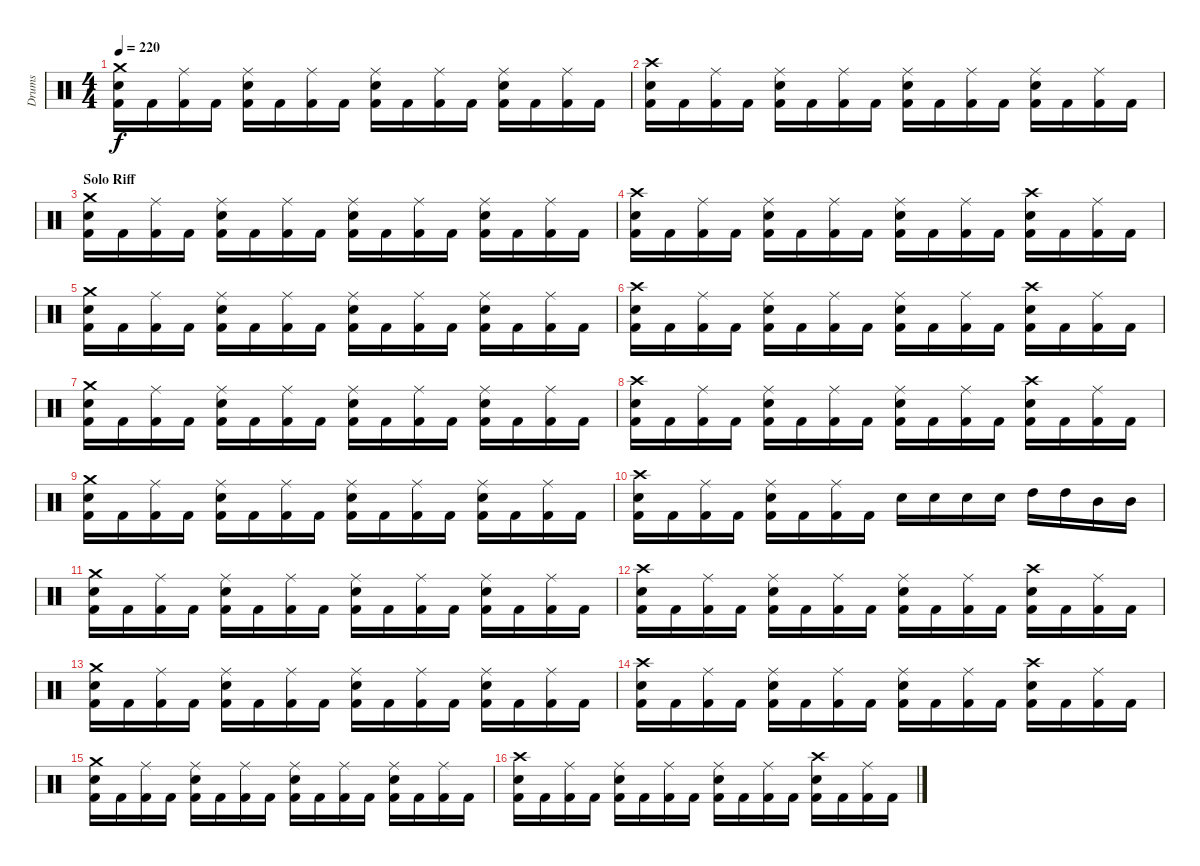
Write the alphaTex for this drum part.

\track ("Drums" "Drums") {instrument percussion}
\staff {score}
\articulation defaults
\ts (4 4)
\tempo 220
\clef neutral
\ks c
("Crash medium (hit)" "Electric Snare (hit)" "Kick (hit) 2").16{dy f} "Kick (hit) 2".16 ("Ride (middle)" "Kick (hit) 2").16 "Kick (hit) 2".16 ("Ride (middle)" "Electric Snare (hit)" "Kick (hit) 2").16 "Kick (hit) 2".16 ("Ride (middle)" "Kick (hit) 2").16 "Kick (hit) 2".16 ("Ride (middle)" "Electric Snare (hit)" "Kick (hit) 2").16 "Kick (hit) 2".16 ("Ride (middle)" "Kick (hit) 2").16 "Kick (hit) 2".16 ("Ride (middle)" "Electric Snare (hit)" "Kick (hit) 2").16 "Kick (hit) 2".16 ("Ride (middle)" "Kick (hit) 2").16 "Kick (hit) 2".16 |
("Crash high (hit)" "Electric Snare (hit)" "Kick (hit) 2").16 "Kick (hit) 2".16 ("Ride (middle)" "Kick (hit) 2").16 "Kick (hit) 2".16 ("Ride (middle)" "Electric Snare (hit)" "Kick (hit) 2").16 "Kick (hit) 2".16 ("Ride (middle)" "Kick (hit) 2").16 "Kick (hit) 2".16 ("Ride (middle)" "Electric Snare (hit)" "Kick (hit) 2").16 "Kick (hit) 2".16 ("Ride (middle)" "Kick (hit) 2").16 "Kick (hit) 2".16 ("Ride (middle)" "Electric Snare (hit)" "Kick (hit) 2").16 "Kick (hit) 2".16 ("Ride (middle)" "Kick (hit) 2").16 "Kick (hit) 2".16 |
\section ("" "Solo Riff")
("Crash medium (hit)" "Electric Snare (hit)" "Kick (hit) 2").16 "Kick (hit) 2".16 ("Ride (middle)" "Kick (hit) 2").16 "Kick (hit) 2".16 ("Ride (middle)" "Electric Snare (hit)" "Kick (hit) 2").16 "Kick (hit) 2".16 ("Ride (middle)" "Kick (hit) 2").16 "Kick (hit) 2".16 ("Ride (middle)" "Electric Snare (hit)" "Kick (hit) 2").16 "Kick (hit) 2".16 ("Ride (middle)" "Kick (hit) 2").16 "Kick (hit) 2".16 ("Ride (middle)" "Electric Snare (hit)" "Kick (hit) 2").16 "Kick (hit) 2".16 ("Ride (middle)" "Kick (hit) 2").16 "Kick (hit) 2".16 |
("Crash high (hit)" "Electric Snare (hit)" "Kick (hit) 2").16 "Kick (hit) 2".16 ("Ride (middle)" "Kick (hit) 2").16 "Kick (hit) 2".16 ("Ride (middle)" "Electric Snare (hit)" "Kick (hit) 2").16 "Kick (hit) 2".16 ("Ride (middle)" "Kick (hit) 2").16 "Kick (hit) 2".16 ("Ride (middle)" "Electric Snare (hit)" "Kick (hit) 2").16 "Kick (hit) 2".16 ("Ride (middle)" "Kick (hit) 2").16 "Kick (hit) 2".16 ("Crash high (hit)" "Electric Snare (hit)" "Kick (hit) 2").16 "Kick (hit) 2".16 ("Ride (middle)" "Kick (hit) 2").16 "Kick (hit) 2".16 |
("Crash medium (hit)" "Electric Snare (hit)" "Kick (hit) 2").16 "Kick (hit) 2".16 ("Ride (middle)" "Kick (hit) 2").16 "Kick (hit) 2".16 ("Ride (middle)" "Electric Snare (hit)" "Kick (hit) 2").16 "Kick (hit) 2".16 ("Ride (middle)" "Kick (hit) 2").16 "Kick (hit) 2".16 ("Ride (middle)" "Electric Snare (hit)" "Kick (hit) 2").16 "Kick (hit) 2".16 ("Ride (middle)" "Kick (hit) 2").16 "Kick (hit) 2".16 ("Ride (middle)" "Electric Snare (hit)" "Kick (hit) 2").16 "Kick (hit) 2".16 ("Ride (middle)" "Kick (hit) 2").16 "Kick (hit) 2".16 |
("Crash high (hit)" "Electric Snare (hit)" "Kick (hit) 2").16 "Kick (hit) 2".16 ("Ride (middle)" "Kick (hit) 2").16 "Kick (hit) 2".16 ("Ride (middle)" "Electric Snare (hit)" "Kick (hit) 2").16 "Kick (hit) 2".16 ("Ride (middle)" "Kick (hit) 2").16 "Kick (hit) 2".16 ("Ride (middle)" "Electric Snare (hit)" "Kick (hit) 2").16 "Kick (hit) 2".16 ("Ride (middle)" "Kick (hit) 2").16 "Kick (hit) 2".16 ("Crash high (hit)" "Electric Snare (hit)" "Kick (hit) 2").16 "Kick (hit) 2".16 ("Ride (middle)" "Kick (hit) 2").16 "Kick (hit) 2".16 |
("Crash medium (hit)" "Electric Snare (hit)" "Kick (hit) 2").16 "Kick (hit) 2".16 ("Ride (middle)" "Kick (hit) 2").16 "Kick (hit) 2".16 ("Ride (middle)" "Electric Snare (hit)" "Kick (hit) 2").16 "Kick (hit) 2".16 ("Ride (middle)" "Kick (hit) 2").16 "Kick (hit) 2".16 ("Ride (middle)" "Electric Snare (hit)" "Kick (hit) 2").16 "Kick (hit) 2".16 ("Ride (middle)" "Kick (hit) 2").16 "Kick (hit) 2".16 ("Ride (middle)" "Electric Snare (hit)" "Kick (hit) 2").16 "Kick (hit) 2".16 ("Ride (middle)" "Kick (hit) 2").16 "Kick (hit) 2".16 |
("Crash high (hit)" "Electric Snare (hit)" "Kick (hit) 2").16 "Kick (hit) 2".16 ("Ride (middle)" "Kick (hit) 2").16 "Kick (hit) 2".16 ("Ride (middle)" "Electric Snare (hit)" "Kick (hit) 2").16 "Kick (hit) 2".16 ("Ride (middle)" "Kick (hit) 2").16 "Kick (hit) 2".16 ("Ride (middle)" "Electric Snare (hit)" "Kick (hit) 2").16 "Kick (hit) 2".16 ("Ride (middle)" "Kick (hit) 2").16 "Kick (hit) 2".16 ("Crash high (hit)" "Electric Snare (hit)" "Kick (hit) 2").16 "Kick (hit) 2".16 ("Ride (middle)" "Kick (hit) 2").16 "Kick (hit) 2".16 |
("Crash medium (hit)" "Electric Snare (hit)" "Kick (hit) 2").16 "Kick (hit) 2".16 ("Ride (middle)" "Kick (hit) 2").16 "Kick (hit) 2".16 ("Ride (middle)" "Electric Snare (hit)" "Kick (hit) 2").16 "Kick (hit) 2".16 ("Ride (middle)" "Kick (hit) 2").16 "Kick (hit) 2".16 ("Ride (middle)" "Electric Snare (hit)" "Kick (hit) 2").16 "Kick (hit) 2".16 ("Ride (middle)" "Kick (hit) 2").16 "Kick (hit) 2".16 ("Ride (middle)" "Electric Snare (hit)" "Kick (hit) 2").16 "Kick (hit) 2".16 ("Ride (middle)" "Kick (hit) 2").16 "Kick (hit) 2".16 |
("Crash high (hit)" "Electric Snare (hit)" "Kick (hit) 2").16 "Kick (hit) 2".16 ("Ride (middle)" "Kick (hit) 2").16 "Kick (hit) 2".16 ("Ride (middle)" "Electric Snare (hit)" "Kick (hit) 2").16 "Kick (hit) 2".16 ("Ride (middle)" "Kick (hit) 2").16 "Kick (hit) 2".16 "Electric Snare (hit)".16 "Electric Snare (hit)".16 "Electric Snare (hit)".16 "Electric Snare (hit)".16 "High Tom (hit)".16 "High Tom (hit)".16 "Mid Tom (hit)".16 "Mid Tom (hit)".16 |
("Crash medium (hit)" "Electric Snare (hit)" "Kick (hit) 2").16 "Kick (hit) 2".16 ("Ride (middle)" "Kick (hit) 2").16 "Kick (hit) 2".16 ("Ride (middle)" "Electric Snare (hit)" "Kick (hit) 2").16 "Kick (hit) 2".16 ("Ride (middle)" "Kick (hit) 2").16 "Kick (hit) 2".16 ("Ride (middle)" "Electric Snare (hit)" "Kick (hit) 2").16 "Kick (hit) 2".16 ("Ride (middle)" "Kick (hit) 2").16 "Kick (hit) 2".16 ("Ride (middle)" "Electric Snare (hit)" "Kick (hit) 2").16 "Kick (hit) 2".16 ("Ride (middle)" "Kick (hit) 2").16 "Kick (hit) 2".16 |
("Crash high (hit)" "Electric Snare (hit)" "Kick (hit) 2").16 "Kick (hit) 2".16 ("Ride (middle)" "Kick (hit) 2").16 "Kick (hit) 2".16 ("Ride (middle)" "Electric Snare (hit)" "Kick (hit) 2").16 "Kick (hit) 2".16 ("Ride (middle)" "Kick (hit) 2").16 "Kick (hit) 2".16 ("Ride (middle)" "Electric Snare (hit)" "Kick (hit) 2").16 "Kick (hit) 2".16 ("Ride (middle)" "Kick (hit) 2").16 "Kick (hit) 2".16 ("Crash high (hit)" "Electric Snare (hit)" "Kick (hit) 2").16 "Kick (hit) 2".16 ("Ride (middle)" "Kick (hit) 2").16 "Kick (hit) 2".16 |
("Crash medium (hit)" "Electric Snare (hit)" "Kick (hit) 2").16 "Kick (hit) 2".16 ("Ride (middle)" "Kick (hit) 2").16 "Kick (hit) 2".16 ("Ride (middle)" "Electric Snare (hit)" "Kick (hit) 2").16 "Kick (hit) 2".16 ("Ride (middle)" "Kick (hit) 2").16 "Kick (hit) 2".16 ("Ride (middle)" "Electric Snare (hit)" "Kick (hit) 2").16 "Kick (hit) 2".16 ("Ride (middle)" "Kick (hit) 2").16 "Kick (hit) 2".16 ("Ride (middle)" "Electric Snare (hit)" "Kick (hit) 2").16 "Kick (hit) 2".16 ("Ride (middle)" "Kick (hit) 2").16 "Kick (hit) 2".16 |
("Crash high (hit)" "Electric Snare (hit)" "Kick (hit) 2").16 "Kick (hit) 2".16 ("Ride (middle)" "Kick (hit) 2").16 "Kick (hit) 2".16 ("Ride (middle)" "Electric Snare (hit)" "Kick (hit) 2").16 "Kick (hit) 2".16 ("Ride (middle)" "Kick (hit) 2").16 "Kick (hit) 2".16 ("Ride (middle)" "Electric Snare (hit)" "Kick (hit) 2").16 "Kick (hit) 2".16 ("Ride (middle)" "Kick (hit) 2").16 "Kick (hit) 2".16 ("Crash high (hit)" "Electric Snare (hit)" "Kick (hit) 2").16 "Kick (hit) 2".16 ("Ride (middle)" "Kick (hit) 2").16 "Kick (hit) 2".16 |
("Crash medium (hit)" "Electric Snare (hit)" "Kick (hit) 2").16 "Kick (hit) 2".16 ("Ride (middle)" "Kick (hit) 2").16 "Kick (hit) 2".16 ("Ride (middle)" "Electric Snare (hit)" "Kick (hit) 2").16 "Kick (hit) 2".16 ("Ride (middle)" "Kick (hit) 2").16 "Kick (hit) 2".16 ("Ride (middle)" "Electric Snare (hit)" "Kick (hit) 2").16 "Kick (hit) 2".16 ("Ride (middle)" "Kick (hit) 2").16 "Kick (hit) 2".16 ("Ride (middle)" "Electric Snare (hit)" "Kick (hit) 2").16 "Kick (hit) 2".16 ("Ride (middle)" "Kick (hit) 2").16 "Kick (hit) 2".16 |
("Crash high (hit)" "Electric Snare (hit)" "Kick (hit) 2").16 "Kick (hit) 2".16 ("Ride (middle)" "Kick (hit) 2").16 "Kick (hit) 2".16 ("Ride (middle)" "Electric Snare (hit)" "Kick (hit) 2").16 "Kick (hit) 2".16 ("Ride (middle)" "Kick (hit) 2").16 "Kick (hit) 2".16 ("Ride (middle)" "Electric Snare (hit)" "Kick (hit) 2").16 "Kick (hit) 2".16 ("Ride (middle)" "Kick (hit) 2").16 "Kick (hit) 2".16 ("Crash high (hit)" "Electric Snare (hit)" "Kick (hit) 2").16 "Kick (hit) 2".16 ("Ride (middle)" "Kick (hit) 2").16 "Kick (hit) 2".16
